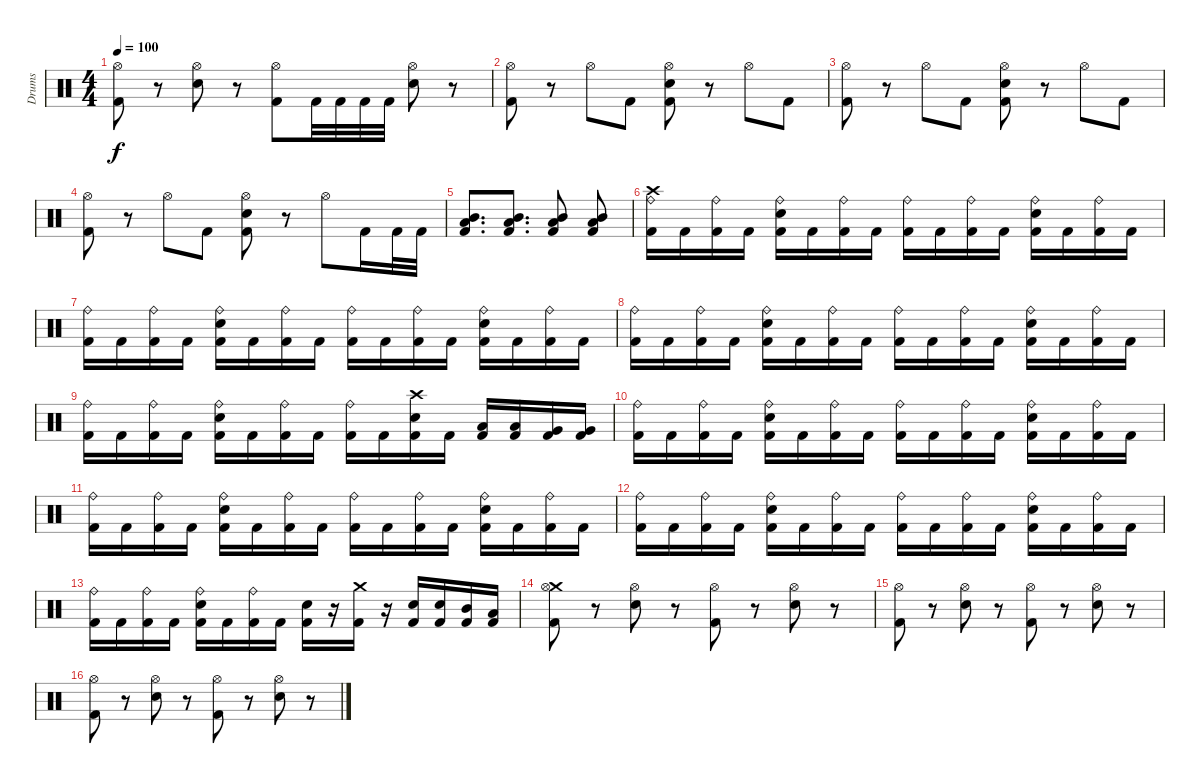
\track ("Drums" "Drums") {instrument percussion}
\staff {score}
\articulation defaults
\ts (4 4)
\tempo 100
\clef neutral
\ks c
("Hi-Hat (open)" "Kick (hit) 2").8{dy f} r.8 ("Hi-Hat (open)" "Snare (hit) 2").8 r.8 ("Hi-Hat (open)" "Kick (hit) 2").8 "Kick (hit) 2".32 "Kick (hit) 2".32 "Kick (hit) 2".32 "Kick (hit) 2".32 ("Hi-Hat (open)" "Snare (hit) 2").8 r.8 |
("Hi-Hat (open)" "Kick (hit) 2").8 r.8 "Hi-Hat (open)".8 "Kick (hit) 2".8 ("Hi-Hat (open)" "Snare (hit) 2" "Kick (hit) 2").8 r.8 "Hi-Hat (open)".8 "Kick (hit) 2".8 |
("Hi-Hat (open)" "Kick (hit) 2").8 r.8 "Hi-Hat (open)".8 "Kick (hit) 2".8 ("Hi-Hat (open)" "Snare (hit) 2" "Kick (hit) 2").8 r.8 "Hi-Hat (open)".8 "Kick (hit) 2".8 |
("Hi-Hat (open)" "Kick (hit) 2").8 r.8 "Hi-Hat (open)".8 "Kick (hit) 2".8 ("Hi-Hat (open)" "Snare (hit) 2" "Kick (hit) 2").8 r.8 "Hi-Hat (open)".8 "Kick (hit) 2".16 "Kick (hit) 2".32 "Kick (hit) 2".32 |
("Low Tom (hit)" "Mid Tom (hit)" "Kick (hit) 2").8{d} ("Low Tom (hit)" "Mid Tom (hit)" "Kick (hit) 2").8{d} ("Low Tom (hit)" "Mid Tom (hit)" "Kick (hit) 2").8 ("Low Tom (hit)" "Mid Tom (hit)" "Kick (hit) 2").8 |
("Crash high (hit)" "Ride (bell)" "Kick (hit) 2").16 "Kick (hit) 2".16 ("Ride (bell)" "Kick (hit) 2").16 "Kick (hit) 2".16 ("Ride (bell)" "Snare (hit) 2" "Kick (hit) 2").16 "Kick (hit) 2".16 ("Ride (bell)" "Kick (hit) 2").16 "Kick (hit) 2".16 ("Ride (bell)" "Kick (hit) 2").16 "Kick (hit) 2".16 ("Ride (bell)" "Kick (hit) 2").16 "Kick (hit) 2".16 ("Ride (bell)" "Snare (hit) 2" "Kick (hit) 2").16 "Kick (hit) 2".16 ("Ride (bell)" "Kick (hit) 2").16 "Kick (hit) 2".16 |
("Ride (bell)" "Kick (hit) 2").16 "Kick (hit) 2".16 ("Ride (bell)" "Kick (hit) 2").16 "Kick (hit) 2".16 ("Ride (bell)" "Snare (hit) 2" "Kick (hit) 2").16 "Kick (hit) 2".16 ("Ride (bell)" "Kick (hit) 2").16 "Kick (hit) 2".16 ("Ride (bell)" "Kick (hit) 2").16 "Kick (hit) 2".16 ("Ride (bell)" "Kick (hit) 2").16 "Kick (hit) 2".16 ("Ride (bell)" "Snare (hit) 2" "Kick (hit) 2").16 "Kick (hit) 2".16 ("Ride (bell)" "Kick (hit) 2").16 "Kick (hit) 2".16 |
("Ride (bell)" "Kick (hit) 2").16 "Kick (hit) 2".16 ("Ride (bell)" "Kick (hit) 2").16 "Kick (hit) 2".16 ("Ride (bell)" "Snare (hit) 2" "Kick (hit) 2").16 "Kick (hit) 2".16 ("Ride (bell)" "Kick (hit) 2").16 "Kick (hit) 2".16 ("Ride (bell)" "Kick (hit) 2").16 "Kick (hit) 2".16 ("Ride (bell)" "Kick (hit) 2").16 "Kick (hit) 2".16 ("Ride (bell)" "Snare (hit) 2" "Kick (hit) 2").16 "Kick (hit) 2".16 ("Ride (bell)" "Kick (hit) 2").16 "Kick (hit) 2".16 |
("Ride (bell)" "Kick (hit) 2").16 "Kick (hit) 2".16 ("Ride (bell)" "Kick (hit) 2").16 "Kick (hit) 2".16 ("Ride (bell)" "Snare (hit) 2" "Kick (hit) 2").16 "Kick (hit) 2".16 ("Ride (bell)" "Kick (hit) 2").16 "Kick (hit) 2".16 ("Ride (bell)" "Kick (hit) 2").16 "Kick (hit) 2".16 ("Crash high (hit)" "Snare (hit) 2" "Kick (hit) 2").16 "Kick (hit) 2".16 ("Low Tom (hit)" "Kick (hit) 2").16 ("Low Tom (hit)" "Kick (hit) 2").16 ("Very Low Tom (hit)" "Kick (hit) 2").16 ("Very Low Tom (hit)" "Kick (hit) 2").16 |
("Ride (bell)" "Kick (hit) 2").16 "Kick (hit) 2".16 ("Ride (bell)" "Kick (hit) 2").16 "Kick (hit) 2".16 ("Ride (bell)" "Snare (hit) 2" "Kick (hit) 2").16 "Kick (hit) 2".16 ("Ride (bell)" "Kick (hit) 2").16 "Kick (hit) 2".16 ("Ride (bell)" "Kick (hit) 2").16 "Kick (hit) 2".16 ("Ride (bell)" "Kick (hit) 2").16 "Kick (hit) 2".16 ("Ride (bell)" "Snare (hit) 2" "Kick (hit) 2").16 "Kick (hit) 2".16 ("Ride (bell)" "Kick (hit) 2").16 "Kick (hit) 2".16 |
("Ride (bell)" "Kick (hit) 2").16 "Kick (hit) 2".16 ("Ride (bell)" "Kick (hit) 2").16 "Kick (hit) 2".16 ("Ride (bell)" "Snare (hit) 2" "Kick (hit) 2").16 "Kick (hit) 2".16 ("Ride (bell)" "Kick (hit) 2").16 "Kick (hit) 2".16 ("Ride (bell)" "Kick (hit) 2").16 "Kick (hit) 2".16 ("Ride (bell)" "Kick (hit) 2").16 "Kick (hit) 2".16 ("Ride (bell)" "Snare (hit) 2" "Kick (hit) 2").16 "Kick (hit) 2".16 ("Ride (bell)" "Kick (hit) 2").16 "Kick (hit) 2".16 |
("Ride (bell)" "Kick (hit) 2").16 "Kick (hit) 2".16 ("Ride (bell)" "Kick (hit) 2").16 "Kick (hit) 2".16 ("Ride (bell)" "Snare (hit) 2" "Kick (hit) 2").16 "Kick (hit) 2".16 ("Ride (bell)" "Kick (hit) 2").16 "Kick (hit) 2".16 ("Ride (bell)" "Kick (hit) 2").16 "Kick (hit) 2".16 ("Ride (bell)" "Kick (hit) 2").16 "Kick (hit) 2".16 ("Ride (bell)" "Snare (hit) 2" "Kick (hit) 2").16 "Kick (hit) 2".16 ("Ride (bell)" "Kick (hit) 2").16 "Kick (hit) 2".16 |
("Ride (bell)" "Kick (hit) 2").16 "Kick (hit) 2".16 ("Ride (bell)" "Kick (hit) 2").16 "Kick (hit) 2".16 ("Ride (bell)" "Snare (hit) 2" "Kick (hit) 2").16 "Kick (hit) 2".16 ("Ride (bell)" "Kick (hit) 2").16 "Kick (hit) 2".16 ("Snare (hit) 2" "Kick (hit) 2").16 r.16 ("Crash medium (hit)" "Kick (hit) 2").16 r.16 ("Snare (hit) 2" "Kick (hit) 2").16 ("Snare (hit) 2" "Kick (hit) 2").16 ("Mid Tom (hit)" "Kick (hit) 2").16 ("Low Tom (hit)" "Kick (hit) 2").16 |
("Crash medium (hit)" "Hi-Hat (open)" "Kick (hit) 2").8 r.8 ("Hi-Hat (open)" "Snare (hit) 2").8 r.8 ("Hi-Hat (open)" "Kick (hit) 2").8 r.8 ("Hi-Hat (open)" "Snare (hit) 2").8 r.8 |
("Hi-Hat (open)" "Kick (hit) 2").8 r.8 ("Hi-Hat (open)" "Snare (hit) 2").8 r.8 ("Hi-Hat (open)" "Kick (hit) 2").8 r.8 ("Hi-Hat (open)" "Snare (hit) 2").8 r.8 |
("Hi-Hat (open)" "Kick (hit) 2").8 r.8 ("Hi-Hat (open)" "Snare (hit) 2").8 r.8 ("Hi-Hat (open)" "Kick (hit) 2").8 r.8 ("Hi-Hat (open)" "Snare (hit) 2").8 r.8
